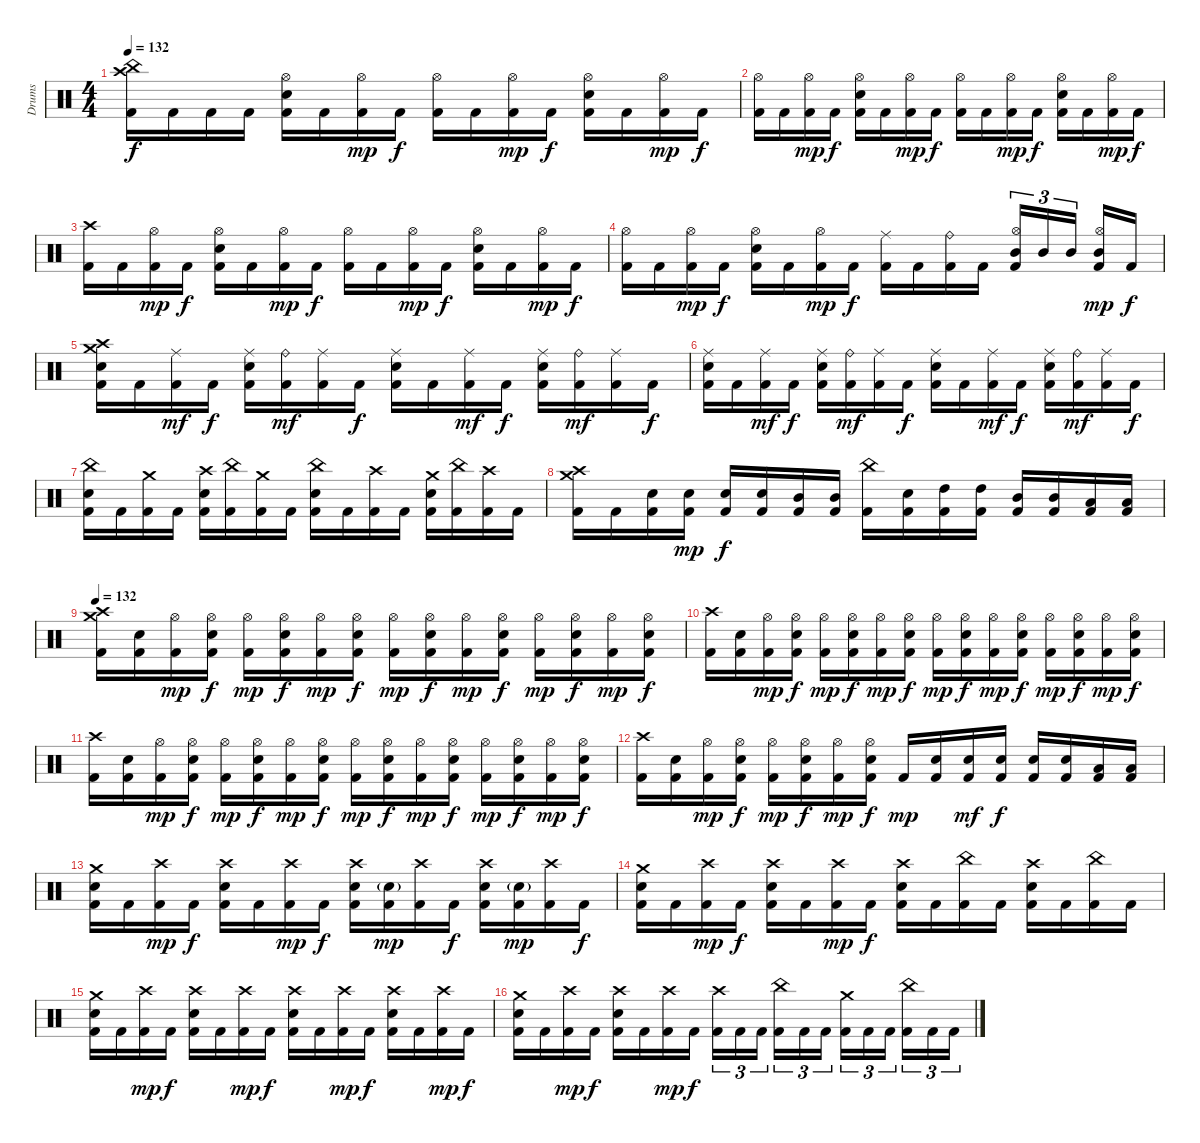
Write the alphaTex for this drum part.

\track ("Drums" "Drums") {instrument percussion}
\staff {score}
\articulation defaults
\ts (4 4)
\tempo 132
\clef neutral
\ks c
("Crash high (hit)" "China (hit)" "Kick (hit) 2").16{dy f} "Kick (hit) 2".16 "Kick (hit) 2".16 "Kick (hit) 2".16 ("Hi-Hat (open)" "Electric Snare (hit)" "Kick (hit) 2").16 "Kick (hit) 2".16 ("Hi-Hat (open)" "Kick (hit) 2").16{dy mp} "Kick (hit) 2".16{dy f} ("Hi-Hat (open)" "Kick (hit) 2").16 "Kick (hit) 2".16 ("Hi-Hat (open)" "Kick (hit) 2").16{dy mp} "Kick (hit) 2".16{dy f} ("Hi-Hat (open)" "Electric Snare (hit)" "Kick (hit) 2").16 "Kick (hit) 2".16 ("Hi-Hat (open)" "Kick (hit) 2").16{dy mp} "Kick (hit) 2".16{dy f} |
("Hi-Hat (open)" "Kick (hit) 2").16 "Kick (hit) 2".16 ("Hi-Hat (open)" "Kick (hit) 2").16{dy mp} "Kick (hit) 2".16{dy f} ("Hi-Hat (open)" "Electric Snare (hit)" "Kick (hit) 2").16 "Kick (hit) 2".16 ("Hi-Hat (open)" "Kick (hit) 2").16{dy mp} "Kick (hit) 2".16{dy f} ("Hi-Hat (open)" "Kick (hit) 2").16 "Kick (hit) 2".16 ("Hi-Hat (open)" "Kick (hit) 2").16{dy mp} "Kick (hit) 2".16{dy f} ("Hi-Hat (open)" "Electric Snare (hit)" "Kick (hit) 2").16 "Kick (hit) 2".16 ("Hi-Hat (open)" "Kick (hit) 2").16{dy mp} "Kick (hit) 2".16{dy f} |
("Crash high (hit)" "Kick (hit) 2").16 "Kick (hit) 2".16 ("Hi-Hat (open)" "Kick (hit) 2").16{dy mp} "Kick (hit) 2".16{dy f} ("Hi-Hat (open)" "Electric Snare (hit)" "Kick (hit) 2").16 "Kick (hit) 2".16 ("Hi-Hat (open)" "Kick (hit) 2").16{dy mp} "Kick (hit) 2".16{dy f} ("Hi-Hat (open)" "Kick (hit) 2").16 "Kick (hit) 2".16 ("Hi-Hat (open)" "Kick (hit) 2").16{dy mp} "Kick (hit) 2".16{dy f} ("Hi-Hat (open)" "Electric Snare (hit)" "Kick (hit) 2").16 "Kick (hit) 2".16 ("Hi-Hat (open)" "Kick (hit) 2").16{dy mp} "Kick (hit) 2".16{dy f} |
("Hi-Hat (open)" "Kick (hit) 2").16 "Kick (hit) 2".16 ("Hi-Hat (open)" "Kick (hit) 2").16{dy mp} "Kick (hit) 2".16{dy f} ("Hi-Hat (open)" "Electric Snare (hit)" "Kick (hit) 2").16 "Kick (hit) 2".16 ("Hi-Hat (open)" "Kick (hit) 2").16{dy mp} "Kick (hit) 2".16{dy f} ("Ride (middle)" "Kick (hit) 2").16 "Kick (hit) 2".16 ("Ride (bell)" "Kick (hit) 2").16 "Kick (hit) 2".16 ("Hi-Hat (open)" "Mid Tom (hit)" "Kick (hit) 2").16{tu (3 2)} "Mid Tom (hit)".16{tu (3 2)} "Mid Tom (hit)".16{tu (3 2) beam splitsecondary} ("Hi-Hat (open)" "Mid Tom (hit)" "Kick (hit) 2").16{dy mp} "Kick (hit) 2".16{dy f} |
("Crash high (hit)" "Crash medium (hit)" "Electric Snare (hit)" "Kick (hit) 2").16 "Kick (hit) 2".16 ("Ride (middle)" "Kick (hit) 2").16{dy mf} "Kick (hit) 2".16{dy f} ("Ride (middle)" "Electric Snare (hit)" "Kick (hit) 2").16 ("Ride (bell)" "Kick (hit) 2").16{dy mf} ("Ride (middle)" "Kick (hit) 2").16 "Kick (hit) 2".16{dy f} ("Ride (middle)" "Electric Snare (hit)" "Kick (hit) 2").16 "Kick (hit) 2".16 ("Ride (middle)" "Kick (hit) 2").16{dy mf} "Kick (hit) 2".16{dy f} ("Ride (middle)" "Electric Snare (hit)" "Kick (hit) 2").16 ("Ride (bell)" "Kick (hit) 2").16{dy mf} ("Ride (middle)" "Kick (hit) 2").16 "Kick (hit) 2".16{dy f} |
("Ride (middle)" "Electric Snare (hit)" "Kick (hit) 2").16 "Kick (hit) 2".16 ("Ride (middle)" "Kick (hit) 2").16{dy mf} "Kick (hit) 2".16{dy f} ("Ride (middle)" "Electric Snare (hit)" "Kick (hit) 2").16 ("Ride (bell)" "Kick (hit) 2").16{dy mf} ("Ride (middle)" "Kick (hit) 2").16 "Kick (hit) 2".16{dy f} ("Ride (middle)" "Electric Snare (hit)" "Kick (hit) 2").16 "Kick (hit) 2".16 ("Ride (middle)" "Kick (hit) 2").16{dy mf} "Kick (hit) 2".16{dy f} ("Ride (middle)" "Electric Snare (hit)" "Kick (hit) 2").16 ("Ride (bell)" "Kick (hit) 2").16{dy mf} ("Ride (middle)" "Kick (hit) 2").16 "Kick (hit) 2".16{dy f} |
("China (hit)" "Electric Snare (hit)" "Kick (hit) 2").16 "Kick (hit) 2".16 ("Crash medium (hit)" "Kick (hit) 2").16 "Kick (hit) 2".16 ("Crash high (hit)" "Electric Snare (hit)" "Kick (hit) 2").16 ("China (hit)" "Kick (hit) 2").16 ("Crash medium (hit)" "Kick (hit) 2").16 "Kick (hit) 2".16 ("China (hit)" "Electric Snare (hit)" "Kick (hit) 2").16 "Kick (hit) 2".16 ("Crash high (hit)" "Kick (hit) 2").16 "Kick (hit) 2".16 ("Crash medium (hit)" "Electric Snare (hit)" "Kick (hit) 2").16 ("China (hit)" "Kick (hit) 2").16 ("Crash high (hit)" "Kick (hit) 2").16 "Kick (hit) 2".16 |
("Crash high (hit)" "Crash medium (hit)" "Kick (hit) 2").16 "Kick (hit) 2".16 ("Electric Snare (hit)" "Kick (hit) 2").16 ("Electric Snare (hit)" "Kick (hit) 2").16{dy mp} ("Electric Snare (hit)" "Kick (hit) 2").16{dy f} ("Electric Snare (hit)" "Kick (hit) 2").16 ("Mid Tom (hit)" "Kick (hit) 2").16 ("Mid Tom (hit)" "Kick (hit) 2").16 ("China (hit)" "Kick (hit) 2").16 ("Electric Snare (hit)" "Kick (hit) 2").16 ("High Tom (hit)" "Kick (hit) 2").16 ("High Tom (hit)" "Kick (hit) 2").16 ("Mid Tom (hit)" "Kick (hit) 2").16 ("Mid Tom (hit)" "Kick (hit) 2").16 ("Low Tom (hit)" "Kick (hit) 2").16 ("Low Tom (hit)" "Kick (hit) 2").16 |
\tempo 132
("Crash high (hit)" "Crash medium (hit)" "Kick (hit) 2").16 ("Electric Snare (hit)" "Kick (hit) 2").16 ("Hi-Hat (open)" "Kick (hit) 2").16{dy mp} ("Hi-Hat (open)" "Electric Snare (hit)" "Kick (hit) 2").16{dy f} ("Hi-Hat (open)" "Kick (hit) 2").16{dy mp} ("Hi-Hat (open)" "Electric Snare (hit)" "Kick (hit) 2").16{dy f} ("Hi-Hat (open)" "Kick (hit) 2").16{dy mp} ("Hi-Hat (open)" "Electric Snare (hit)" "Kick (hit) 2").16{dy f} ("Hi-Hat (open)" "Kick (hit) 2").16{dy mp} ("Hi-Hat (open)" "Electric Snare (hit)" "Kick (hit) 2").16{dy f} ("Hi-Hat (open)" "Kick (hit) 2").16{dy mp} ("Hi-Hat (open)" "Electric Snare (hit)" "Kick (hit) 2").16{dy f} ("Hi-Hat (open)" "Kick (hit) 2").16{dy mp} ("Hi-Hat (open)" "Electric Snare (hit)" "Kick (hit) 2").16{dy f} ("Hi-Hat (open)" "Kick (hit) 2").16{dy mp} ("Hi-Hat (open)" "Electric Snare (hit)" "Kick (hit) 2").16{dy f} |
("Crash high (hit)" "Kick (hit) 2").16 ("Electric Snare (hit)" "Kick (hit) 2").16 ("Hi-Hat (open)" "Kick (hit) 2").16{dy mp} ("Hi-Hat (open)" "Electric Snare (hit)" "Kick (hit) 2").16{dy f} ("Hi-Hat (open)" "Kick (hit) 2").16{dy mp} ("Hi-Hat (open)" "Electric Snare (hit)" "Kick (hit) 2").16{dy f} ("Hi-Hat (open)" "Kick (hit) 2").16{dy mp} ("Hi-Hat (open)" "Electric Snare (hit)" "Kick (hit) 2").16{dy f} ("Hi-Hat (open)" "Kick (hit) 2").16{dy mp} ("Hi-Hat (open)" "Electric Snare (hit)" "Kick (hit) 2").16{dy f} ("Hi-Hat (open)" "Kick (hit) 2").16{dy mp} ("Hi-Hat (open)" "Electric Snare (hit)" "Kick (hit) 2").16{dy f} ("Hi-Hat (open)" "Kick (hit) 2").16{dy mp} ("Hi-Hat (open)" "Electric Snare (hit)" "Kick (hit) 2").16{dy f} ("Hi-Hat (open)" "Kick (hit) 2").16{dy mp} ("Hi-Hat (open)" "Electric Snare (hit)" "Kick (hit) 2").16{dy f} |
("Crash high (hit)" "Kick (hit) 2").16 ("Electric Snare (hit)" "Kick (hit) 2").16 ("Hi-Hat (open)" "Kick (hit) 2").16{dy mp} ("Hi-Hat (open)" "Electric Snare (hit)" "Kick (hit) 2").16{dy f} ("Hi-Hat (open)" "Kick (hit) 2").16{dy mp} ("Hi-Hat (open)" "Electric Snare (hit)" "Kick (hit) 2").16{dy f} ("Hi-Hat (open)" "Kick (hit) 2").16{dy mp} ("Hi-Hat (open)" "Electric Snare (hit)" "Kick (hit) 2").16{dy f} ("Hi-Hat (open)" "Kick (hit) 2").16{dy mp} ("Hi-Hat (open)" "Electric Snare (hit)" "Kick (hit) 2").16{dy f} ("Hi-Hat (open)" "Kick (hit) 2").16{dy mp} ("Hi-Hat (open)" "Electric Snare (hit)" "Kick (hit) 2").16{dy f} ("Hi-Hat (open)" "Kick (hit) 2").16{dy mp} ("Hi-Hat (open)" "Electric Snare (hit)" "Kick (hit) 2").16{dy f} ("Hi-Hat (open)" "Kick (hit) 2").16{dy mp} ("Hi-Hat (open)" "Electric Snare (hit)" "Kick (hit) 2").16{dy f} |
("Crash high (hit)" "Kick (hit) 2").16 ("Electric Snare (hit)" "Kick (hit) 2").16 ("Hi-Hat (open)" "Kick (hit) 2").16{dy mp} ("Hi-Hat (open)" "Electric Snare (hit)" "Kick (hit) 2").16{dy f} ("Hi-Hat (open)" "Kick (hit) 2").16{dy mp} ("Hi-Hat (open)" "Electric Snare (hit)" "Kick (hit) 2").16{dy f} ("Hi-Hat (open)" "Kick (hit) 2").16{dy mp} ("Hi-Hat (open)" "Electric Snare (hit)" "Kick (hit) 2").16{dy f} "Kick (hit) 2".16{dy mp} ("Electric Snare (hit)" "Kick (hit) 2").16 ("Electric Snare (hit)" "Kick (hit) 2").16{dy mf} ("Electric Snare (hit)" "Kick (hit) 2").16{dy f} ("Electric Snare (hit)" "Kick (hit) 2").16 ("Electric Snare (hit)" "Kick (hit) 2").16 ("Low Tom (hit)" "Kick (hit) 2").16 ("Low Tom (hit)" "Kick (hit) 2").16 |
("Crash medium (hit)" "Electric Snare (hit)" "Kick (hit) 2").16 "Kick (hit) 2".16 ("Crash high (hit)" "Kick (hit) 2").16{dy mp} "Kick (hit) 2".16{dy f} ("Crash high (hit)" "Electric Snare (hit)" "Kick (hit) 2").16 "Kick (hit) 2".16 ("Crash high (hit)" "Kick (hit) 2").16{dy mp} "Kick (hit) 2".16{dy f} ("Crash high (hit)" "Electric Snare (hit)" "Kick (hit) 2").16 ("Electric Snare (hit)"{g} "Kick (hit) 2").16{dy mp} ("Crash high (hit)" "Kick (hit) 2").16 "Kick (hit) 2".16{dy f} ("Crash high (hit)" "Electric Snare (hit)" "Kick (hit) 2").16 ("Electric Snare (hit)"{g} "Kick (hit) 2").16{dy mp} ("Crash high (hit)" "Kick (hit) 2").16 "Kick (hit) 2".16{dy f} |
("Crash medium (hit)" "Electric Snare (hit)" "Kick (hit) 2").16 "Kick (hit) 2".16 ("Crash high (hit)" "Kick (hit) 2").16{dy mp} "Kick (hit) 2".16{dy f} ("Crash high (hit)" "Electric Snare (hit)" "Kick (hit) 2").16 "Kick (hit) 2".16 ("Crash high (hit)" "Kick (hit) 2").16{dy mp} "Kick (hit) 2".16{dy f} ("Crash high (hit)" "Electric Snare (hit)" "Kick (hit) 2").16 "Kick (hit) 2".16 ("China (hit)" "Kick (hit) 2").16 "Kick (hit) 2".16 ("Crash high (hit)" "Electric Snare (hit)" "Kick (hit) 2").16 "Kick (hit) 2".16 ("China (hit)" "Kick (hit) 2").16 "Kick (hit) 2".16 |
("Crash medium (hit)" "Electric Snare (hit)" "Kick (hit) 2").16 "Kick (hit) 2".16 ("Crash high (hit)" "Kick (hit) 2").16{dy mp} "Kick (hit) 2".16{dy f} ("Crash high (hit)" "Electric Snare (hit)" "Kick (hit) 2").16 "Kick (hit) 2".16 ("Crash high (hit)" "Kick (hit) 2").16{dy mp} "Kick (hit) 2".16{dy f} ("Crash high (hit)" "Electric Snare (hit)" "Kick (hit) 2").16 "Kick (hit) 2".16 ("Crash high (hit)" "Kick (hit) 2").16{dy mp} "Kick (hit) 2".16{dy f} ("Crash high (hit)" "Electric Snare (hit)" "Kick (hit) 2").16 "Kick (hit) 2".16 ("Crash high (hit)" "Kick (hit) 2").16{dy mp} "Kick (hit) 2".16{dy f} |
("Crash medium (hit)" "Electric Snare (hit)" "Kick (hit) 2").16 "Kick (hit) 2".16 ("Crash high (hit)" "Kick (hit) 2").16{dy mp} "Kick (hit) 2".16{dy f} ("Crash high (hit)" "Electric Snare (hit)" "Kick (hit) 2").16 "Kick (hit) 2".16 ("Crash high (hit)" "Kick (hit) 2").16{dy mp} "Kick (hit) 2".16{dy f} ("Crash high (hit)" "Kick (hit) 2").16{tu (3 2)} "Kick (hit) 2".16{tu (3 2)} "Kick (hit) 2".16{tu (3 2) beam splitsecondary} ("China (hit)" "Kick (hit) 2").16{tu (3 2)} "Kick (hit) 2".16{tu (3 2)} "Kick (hit) 2".16{tu (3 2)} ("Crash medium (hit)" "Kick (hit) 2").16{tu (3 2)} "Kick (hit) 2".16{tu (3 2)} "Kick (hit) 2".16{tu (3 2) beam splitsecondary} ("China (hit)" "Kick (hit) 2").16{tu (3 2)} "Kick (hit) 2".16{tu (3 2)} "Kick (hit) 2".16{tu (3 2)}
